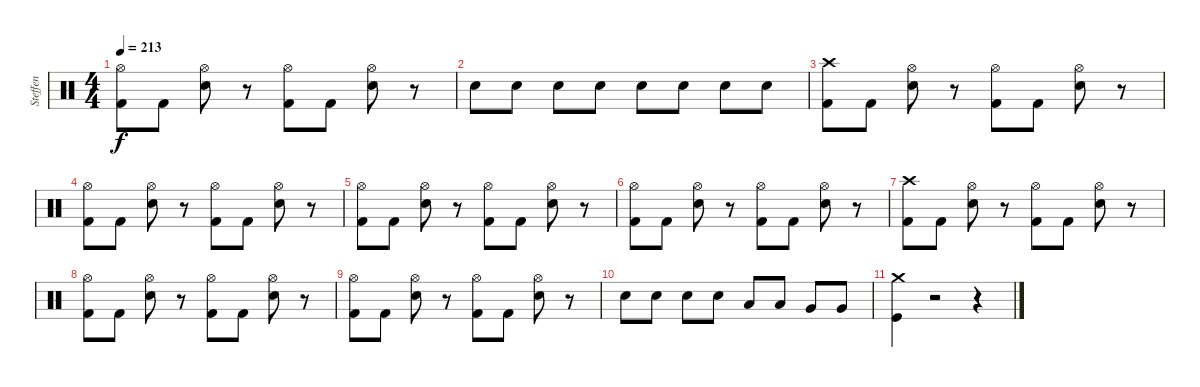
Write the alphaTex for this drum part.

\track ("Steffen" "Steffen") {instrument percussion}
\staff {score}
\articulation defaults
\ts (4 4)
\tempo 213
\clef neutral
\ks c
("Hi-Hat (open)" "Kick (hit) 2").8{dy f} "Kick (hit) 2".8 ("Hi-Hat (open)" "Snare (hit) 2").8 r.8 ("Hi-Hat (open)" "Kick (hit) 2").8 "Kick (hit) 2".8 ("Hi-Hat (open)" "Snare (hit) 2").8 r.8 |
"Snare (hit) 2".8 "Snare (hit) 2".8 "Snare (hit) 2".8 "Snare (hit) 2".8 "Snare (hit) 2".8 "Snare (hit) 2".8 "Snare (hit) 2".8 "Snare (hit) 2".8 |
("Crash high (hit)" "Kick (hit) 2").8 "Kick (hit) 2".8 ("Hi-Hat (open)" "Snare (hit) 2").8 r.8 ("Hi-Hat (open)" "Kick (hit) 2").8 "Kick (hit) 2".8 ("Hi-Hat (open)" "Snare (hit) 2").8 r.8 |
("Hi-Hat (open)" "Kick (hit) 2").8 "Kick (hit) 2".8 ("Hi-Hat (open)" "Snare (hit) 2").8 r.8 ("Hi-Hat (open)" "Kick (hit) 2").8 "Kick (hit) 2".8 ("Hi-Hat (open)" "Snare (hit) 2").8 r.8 |
("Hi-Hat (open)" "Kick (hit) 2").8 "Kick (hit) 2".8 ("Hi-Hat (open)" "Snare (hit) 2").8 r.8 ("Hi-Hat (open)" "Kick (hit) 2").8 "Kick (hit) 2".8 ("Hi-Hat (open)" "Snare (hit) 2").8 r.8 |
("Hi-Hat (open)" "Kick (hit) 2").8 "Kick (hit) 2".8 ("Hi-Hat (open)" "Snare (hit) 2").8 r.8 ("Hi-Hat (open)" "Kick (hit) 2").8 "Kick (hit) 2".8 ("Hi-Hat (open)" "Snare (hit) 2").8 r.8 |
("Crash high (hit)" "Kick (hit) 2").8 "Kick (hit) 2".8 ("Hi-Hat (open)" "Snare (hit) 2").8 r.8 ("Hi-Hat (open)" "Kick (hit) 2").8 "Kick (hit) 2".8 ("Hi-Hat (open)" "Snare (hit) 2").8 r.8 |
("Hi-Hat (open)" "Kick (hit) 2").8 "Kick (hit) 2".8 ("Hi-Hat (open)" "Snare (hit) 2").8 r.8 ("Hi-Hat (open)" "Kick (hit) 2").8 "Kick (hit) 2".8 ("Hi-Hat (open)" "Snare (hit) 2").8 r.8 |
("Hi-Hat (open)" "Kick (hit) 2").8 "Kick (hit) 2".8 ("Hi-Hat (open)" "Snare (hit) 2").8 r.8 ("Hi-Hat (open)" "Kick (hit) 2").8 "Kick (hit) 2".8 ("Hi-Hat (open)" "Snare (hit) 2").8 r.8 |
"Snare (hit) 2".8 "Snare (hit) 2".8 "Snare (hit) 2".8 "Snare (hit) 2".8 "Low Tom (hit)".8 "Low Tom (hit)".8 "Very Low Tom (hit)".8 "Very Low Tom (hit)".8 |
("Crash medium (hit)" "Kick (hit)").4 r.2 r.4
